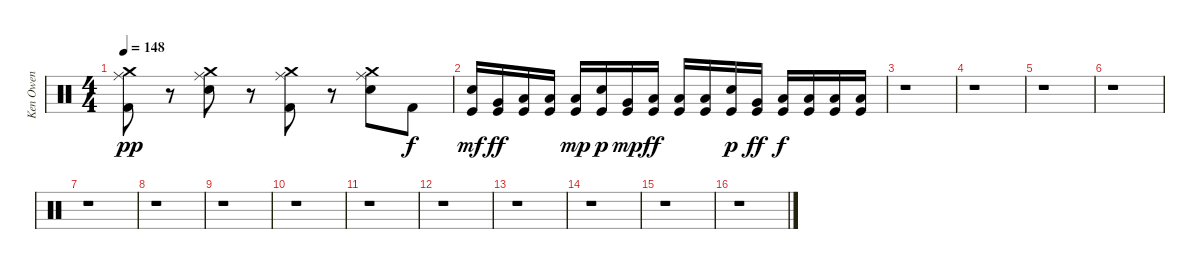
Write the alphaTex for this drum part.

\track ("Ken Owen" "Ken Owen") {instrument percussion}
\staff {score}
\articulation defaults
\ts (4 4)
\tempo 148
\clef neutral
\ks c
("Crash medium (hit)" "Ride (middle)" "Kick (hit) 2").8{dy pp} r.8 ("Crash medium (hit)" "Ride (middle)" "Snare (hit) 2").8 r.8 ("Crash medium (hit)" "Ride (middle)" "Kick (hit) 2").8 r.8 ("Crash medium (hit)" "Ride (middle)" "Snare (hit) 2").8 "Kick (hit) 2".8{dy f} |
("Kick (hit)" "Snare (hit) 2").16{dy mf} ("Kick (hit)" "Very Low Tom (hit)").16{dy ff} ("Kick (hit)" "Low Tom (hit)").16 ("Kick (hit)" "Low Tom (hit)").16 ("Kick (hit)" "Low Tom (hit)").16{dy mp} ("Kick (hit)" "Snare (hit) 2").16{dy p} ("Kick (hit)" "Very Low Tom (hit)").16{dy mp} ("Kick (hit)" "Low Tom (hit)").16{dy ff} ("Kick (hit)" "Low Tom (hit)").16 ("Kick (hit)" "Low Tom (hit)").16 ("Kick (hit)" "Snare (hit) 2").16{dy p} ("Kick (hit)" "Very Low Tom (hit)").16{dy ff} ("Kick (hit)" "Low Tom (hit)").16{dy f} ("Kick (hit)" "Low Tom (hit)").16 ("Kick (hit)" "Low Tom (hit)").16 ("Kick (hit)" "Low Tom (hit)").16 |
r.1 |
r.1 |
r.1 |
r.1 |
r.1 |
r.1 |
r.1 |
r.1 |
r.1 |
r.1 |
r.1 |
r.1 |
r.1 |
r.1
